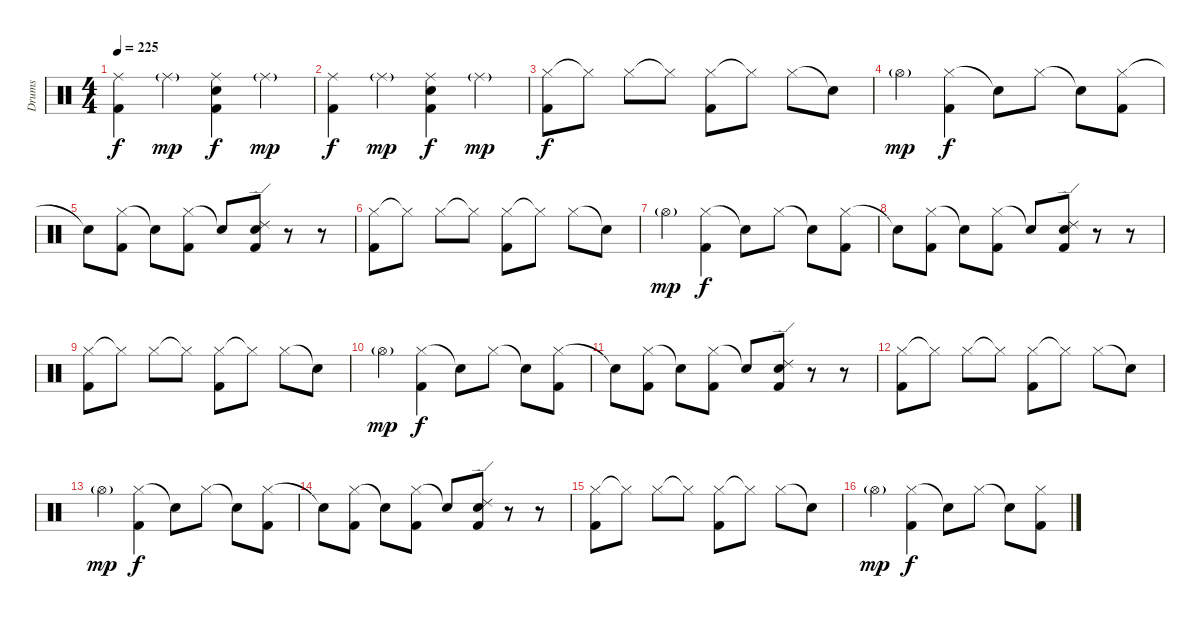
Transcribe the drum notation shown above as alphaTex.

\track ("Drums" "Drums") {instrument percussion}
\staff {score}
\articulation defaults
\ts (4 4)
\tempo 225
\clef neutral
\ks c
("Ride (middle)" "Kick (hit) 2").4{dy f} "Ride (middle)"{g}.4{dy mp} ("Ride (middle)" "Snare (hit) 2" "Kick (hit) 2").4{dy f} "Ride (middle)"{g}.4{dy mp} |
("Ride (middle)" "Kick (hit) 2").4{dy f} "Ride (middle)"{g}.4{dy mp} ("Ride (middle)" "Snare (hit) 2" "Kick (hit) 2").4{dy f} "Ride (middle)"{g}.4{dy mp} |
("Hi-Hat (closed)" "Kick (hit) 2").8{dy f} "Hi-Hat (closed)"{t}.8 "Hi-Hat (closed)".8 "Hi-Hat (closed)"{t}.8 ("Hi-Hat (closed)" "Kick (hit) 2").8 "Hi-Hat (closed)"{t}.8 "Hi-Hat (closed)".8 "Snare (hit)"{t}.8 |
"Hi-Hat (open)"{g}.4{dy mp} ("Hi-Hat (closed)" "Kick (hit) 2").4{dy f} "Snare (hit)"{t}.8 "Hi-Hat (closed)".8 "Snare (hit)"{t}.8 ("Hi-Hat (closed)" "Kick (hit) 2").8 |
"Snare (hit)"{t}.8 ("Hi-Hat (closed)" "Kick (hit) 2").8 "Snare (hit)"{t}.8 ("Hi-Hat (closed)" "Kick (hit) 2").8 "Snare (hit)"{t}.8 ("Ride (edge) 2" "Snare (hit) 2" "Kick (hit) 2").8 r.8 r.8 |
("Hi-Hat (closed)" "Kick (hit) 2").8 "Hi-Hat (closed)"{t}.8 "Hi-Hat (closed)".8 "Hi-Hat (closed)"{t}.8 ("Hi-Hat (closed)" "Kick (hit) 2").8 "Hi-Hat (closed)"{t}.8 "Hi-Hat (closed)".8 "Snare (hit)"{t}.8 |
"Hi-Hat (open)"{g}.4{dy mp} ("Hi-Hat (closed)" "Kick (hit) 2").4{dy f} "Snare (hit)"{t}.8 "Hi-Hat (closed)".8 "Snare (hit)"{t}.8 ("Hi-Hat (closed)" "Kick (hit) 2").8 |
"Snare (hit)"{t}.8 ("Hi-Hat (closed)" "Kick (hit) 2").8 "Snare (hit)"{t}.8 ("Hi-Hat (closed)" "Kick (hit) 2").8 "Snare (hit)"{t}.8 ("Ride (edge) 2" "Snare (hit) 2" "Kick (hit) 2").8 r.8 r.8 |
("Hi-Hat (closed)" "Kick (hit) 2").8 "Hi-Hat (closed)"{t}.8 "Hi-Hat (closed)".8 "Hi-Hat (closed)"{t}.8 ("Hi-Hat (closed)" "Kick (hit) 2").8 "Hi-Hat (closed)"{t}.8 "Hi-Hat (closed)".8 "Snare (hit)"{t}.8 |
"Hi-Hat (open)"{g}.4{dy mp} ("Hi-Hat (closed)" "Kick (hit) 2").4{dy f} "Snare (hit)"{t}.8 "Hi-Hat (closed)".8 "Snare (hit)"{t}.8 ("Hi-Hat (closed)" "Kick (hit) 2").8 |
"Snare (hit)"{t}.8 ("Hi-Hat (closed)" "Kick (hit) 2").8 "Snare (hit)"{t}.8 ("Hi-Hat (closed)" "Kick (hit) 2").8 "Snare (hit)"{t}.8 ("Ride (edge) 2" "Snare (hit) 2" "Kick (hit) 2").8 r.8 r.8 |
("Hi-Hat (closed)" "Kick (hit) 2").8 "Hi-Hat (closed)"{t}.8 "Hi-Hat (closed)".8 "Hi-Hat (closed)"{t}.8 ("Hi-Hat (closed)" "Kick (hit) 2").8 "Hi-Hat (closed)"{t}.8 "Hi-Hat (closed)".8 "Snare (hit)"{t}.8 |
"Hi-Hat (open)"{g}.4{dy mp} ("Hi-Hat (closed)" "Kick (hit) 2").4{dy f} "Snare (hit)"{t}.8 "Hi-Hat (closed)".8 "Snare (hit)"{t}.8 ("Hi-Hat (closed)" "Kick (hit) 2").8 |
"Snare (hit)"{t}.8 ("Hi-Hat (closed)" "Kick (hit) 2").8 "Snare (hit)"{t}.8 ("Hi-Hat (closed)" "Kick (hit) 2").8 "Snare (hit)"{t}.8 ("Ride (edge) 2" "Snare (hit) 2" "Kick (hit) 2").8 r.8 r.8 |
("Hi-Hat (closed)" "Kick (hit) 2").8 "Hi-Hat (closed)"{t}.8 "Hi-Hat (closed)".8 "Hi-Hat (closed)"{t}.8 ("Hi-Hat (closed)" "Kick (hit) 2").8 "Hi-Hat (closed)"{t}.8 "Hi-Hat (closed)".8 "Snare (hit)"{t}.8 |
"Hi-Hat (open)"{g}.4{dy mp} ("Hi-Hat (closed)" "Kick (hit) 2").4{dy f} "Snare (hit)"{t}.8 "Hi-Hat (closed)".8 "Snare (hit)"{t}.8 ("Hi-Hat (closed)" "Kick (hit) 2").8
